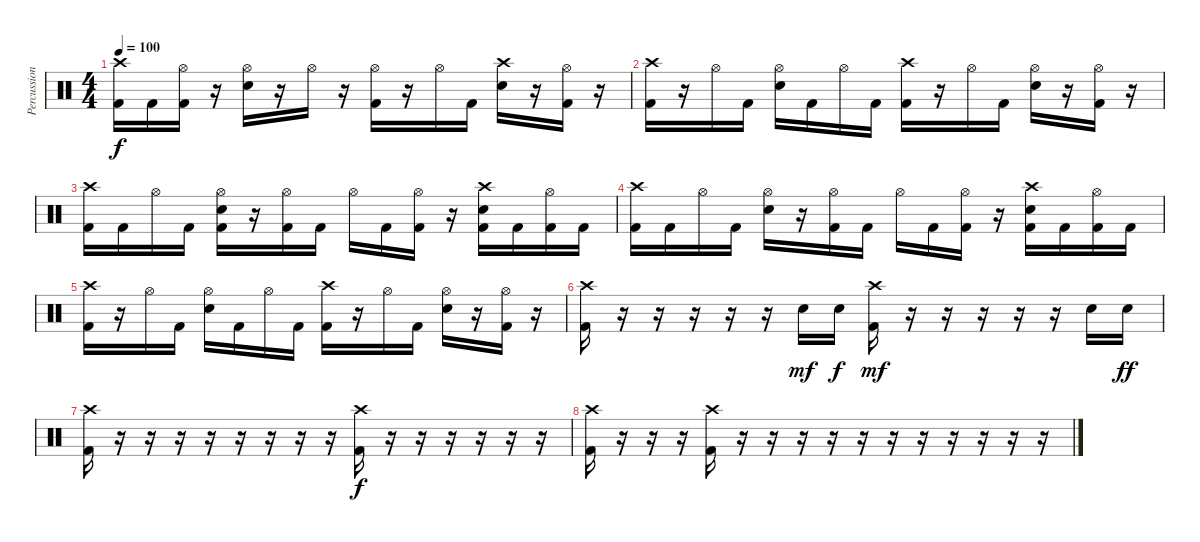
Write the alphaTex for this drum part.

\track ("Percussion" "Percussion") {instrument percussion}
\staff {score}
\articulation defaults
\ts (4 4)
\tempo 100
\clef neutral
\ks c
("Crash high (hit)" "Kick (hit) 2").16{dy f} "Kick (hit) 2".16 ("Hi-Hat (open)" "Kick (hit) 2").16 r.16 ("Hi-Hat (open)" "Snare (hit) 2").16 r.16 "Hi-Hat (open)".16 r.16 ("Hi-Hat (open)" "Kick (hit) 2").16 r.16 "Hi-Hat (open)".16 "Kick (hit) 2".16 ("Crash high (hit)" "Snare (hit) 2").16 r.16 ("Hi-Hat (open)" "Kick (hit) 2").16 r.16 |
("Crash high (hit)" "Kick (hit) 2").16 r.16 "Hi-Hat (open)".16 "Kick (hit) 2".16 ("Hi-Hat (open)" "Snare (hit) 2").16 "Kick (hit) 2".16 "Hi-Hat (open)".16 "Kick (hit) 2".16 ("Crash high (hit)" "Kick (hit) 2").16 r.16 "Hi-Hat (open)".16 "Kick (hit) 2".16 ("Hi-Hat (open)" "Snare (hit) 2").16 r.16 ("Hi-Hat (open)" "Kick (hit) 2").16 r.16 |
("Crash high (hit)" "Kick (hit) 2").16 "Kick (hit) 2".16 "Hi-Hat (open)".16 "Kick (hit) 2".16 ("Hi-Hat (open)" "Snare (hit) 2" "Kick (hit) 2").16 r.16 ("Hi-Hat (open)" "Kick (hit) 2").16 "Kick (hit) 2".16 "Hi-Hat (open)".16 "Kick (hit) 2".16 ("Hi-Hat (open)" "Kick (hit) 2").16 r.16 ("Crash high (hit)" "Snare (hit) 2" "Kick (hit) 2").16 "Kick (hit) 2".16 ("Hi-Hat (open)" "Kick (hit) 2").16 "Kick (hit) 2".16 |
("Crash high (hit)" "Kick (hit) 2").16 "Kick (hit) 2".16 "Hi-Hat (open)".16 "Kick (hit) 2".16 ("Hi-Hat (open)" "Snare (hit) 2").16 r.16 ("Hi-Hat (open)" "Kick (hit) 2").16 "Kick (hit) 2".16 "Hi-Hat (open)".16 "Kick (hit) 2".16 ("Hi-Hat (open)" "Kick (hit) 2").16 r.16 ("Crash high (hit)" "Snare (hit) 2" "Kick (hit) 2").16 "Kick (hit) 2".16 ("Hi-Hat (open)" "Kick (hit) 2").16 "Kick (hit) 2".16 |
("Crash high (hit)" "Kick (hit) 2").16 r.16 "Hi-Hat (open)".16 "Kick (hit) 2".16 ("Hi-Hat (open)" "Snare (hit) 2").16 "Kick (hit) 2".16 "Hi-Hat (open)".16 "Kick (hit) 2".16 ("Crash high (hit)" "Kick (hit) 2").16 r.16 "Hi-Hat (open)".16 "Kick (hit) 2".16 ("Hi-Hat (open)" "Snare (hit) 2").16 r.16 ("Hi-Hat (open)" "Kick (hit) 2").16 r.16 |
("Crash high (hit)" "Kick (hit) 2").16 r.16 r.16 r.16 r.16 r.16 "Snare (hit) 2".16{dy mf} "Snare (hit) 2".16{dy f} ("Crash high (hit)" "Kick (hit) 2").16{dy mf} r.16 r.16 r.16 r.16 r.16 "Snare (hit) 2".16 "Snare (hit) 2".16{dy ff} |
("Crash high (hit)" "Kick (hit) 2").16 r.16 r.16 r.16 r.16 r.16 r.16 r.16 r.16 ("Crash high (hit)" "Kick (hit) 2").16{dy f} r.16 r.16 r.16 r.16 r.16 r.16 |
("Crash high (hit)" "Kick (hit) 2").16 r.16 r.16 r.16 ("Crash high (hit)" "Kick (hit) 2").16 r.16 r.16 r.16 r.16 r.16 r.16 r.16 r.16 r.16 r.16 r.16
